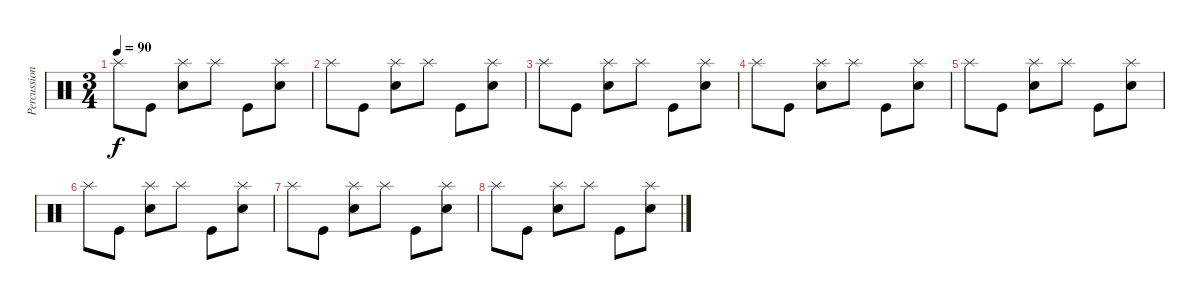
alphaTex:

\track ("Percussions" "Percussion") {instrument percussion}
\staff {score}
\articulation defaults
\ts (3 4)
\tempo 90
\clef neutral
\ks c "Splash (hit)".8{dy f} "Kick (hit)".8
("Electric Snare (hit)" "Splash (hit)").8 "Splash (hit)".8 "Kick (hit)".8 ("Electric Snare (hit)" "Splash (hit)").8 |
"Splash (hit)".8 "Kick (hit)".8 ("Electric Snare (hit)" "Splash (hit)").8 "Splash (hit)".8 "Kick (hit)".8 ("Electric Snare (hit)" "Splash (hit)").8 |
"Splash (hit)".8 "Kick (hit)".8 ("Electric Snare (hit)" "Splash (hit)").8 "Splash (hit)".8 "Kick (hit)".8 ("Electric Snare (hit)" "Splash (hit)").8 |
"Splash (hit)".8 "Kick (hit)".8 ("Electric Snare (hit)" "Splash (hit)").8 "Splash (hit)".8 "Kick (hit)".8 ("Electric Snare (hit)" "Splash (hit)").8 |
"Splash (hit)".8 "Kick (hit)".8 ("Electric Snare (hit)" "Splash (hit)").8 "Splash (hit)".8 "Kick (hit)".8 ("Electric Snare (hit)" "Splash (hit)").8 |
"Splash (hit)".8 "Kick (hit)".8 ("Electric Snare (hit)" "Splash (hit)").8 "Splash (hit)".8 "Kick (hit)".8 ("Electric Snare (hit)" "Splash (hit)").8 |
"Splash (hit)".8 "Kick (hit)".8 ("Electric Snare (hit)" "Splash (hit)").8 "Splash (hit)".8 "Kick (hit)".8 ("Electric Snare (hit)" "Splash (hit)").8 |
"Splash (hit)".8 "Kick (hit)".8 ("Electric Snare (hit)" "Splash (hit)").8 "Splash (hit)".8 "Kick (hit)".8 ("Electric Snare (hit)" "Splash (hit)").8
